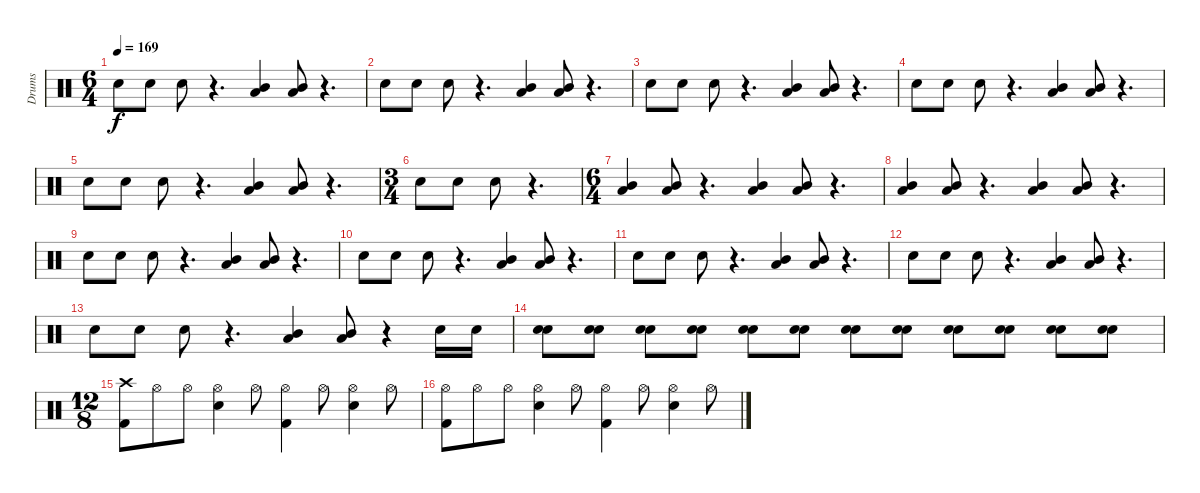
\track ("Drums" "Drums") {instrument percussion}
\staff {score}
\articulation defaults
\ts (6 4)
\tempo 169
\clef neutral
\ks c "Snare (hit) 2".8{dy f} "Snare (hit) 2".8 "Snare (hit) 2".8
r.4{d} ("Low Tom (hit)" "Mid Tom (hit)").4 ("Low Tom (hit)" "Mid Tom (hit)").8 r.4{d} |
"Snare (hit) 2".8 "Snare (hit) 2".8 "Snare (hit) 2".8 r.4{d} ("Low Tom (hit)" "Mid Tom (hit)").4 ("Low Tom (hit)" "Mid Tom (hit)").8 r.4{d} |
"Snare (hit) 2".8 "Snare (hit) 2".8 "Snare (hit) 2".8 r.4{d} ("Low Tom (hit)" "Mid Tom (hit)").4 ("Low Tom (hit)" "Mid Tom (hit)").8 r.4{d} |
"Snare (hit) 2".8 "Snare (hit) 2".8 "Snare (hit) 2".8 r.4{d} ("Low Tom (hit)" "Mid Tom (hit)").4 ("Low Tom (hit)" "Mid Tom (hit)").8 r.4{d} |
"Snare (hit) 2".8 "Snare (hit) 2".8 "Snare (hit) 2".8 r.4{d} ("Low Tom (hit)" "Mid Tom (hit)").4 ("Low Tom (hit)" "Mid Tom (hit)").8 r.4{d} |
\ts (3 4)
"Snare (hit) 2".8 "Snare (hit) 2".8 "Snare (hit) 2".8 r.4{d} |
\ts (6 4)
("Low Tom (hit)" "Mid Tom (hit)").4 ("Low Tom (hit)" "Mid Tom (hit)").8 r.4{d} ("Low Tom (hit)" "Mid Tom (hit)").4 ("Low Tom (hit)" "Mid Tom (hit)").8 r.4{d} |
("Low Tom (hit)" "Mid Tom (hit)").4 ("Low Tom (hit)" "Mid Tom (hit)").8 r.4{d} ("Low Tom (hit)" "Mid Tom (hit)").4 ("Low Tom (hit)" "Mid Tom (hit)").8 r.4{d} |
"Snare (hit) 2".8 "Snare (hit) 2".8 "Snare (hit) 2".8 r.4{d} ("Low Tom (hit)" "Mid Tom (hit)").4 ("Low Tom (hit)" "Mid Tom (hit)").8 r.4{d} |
"Snare (hit) 2".8 "Snare (hit) 2".8 "Snare (hit) 2".8 r.4{d} ("Low Tom (hit)" "Mid Tom (hit)").4 ("Low Tom (hit)" "Mid Tom (hit)").8 r.4{d} |
"Snare (hit) 2".8 "Snare (hit) 2".8 "Snare (hit) 2".8 r.4{d} ("Low Tom (hit)" "Mid Tom (hit)").4 ("Low Tom (hit)" "Mid Tom (hit)").8 r.4{d} |
"Snare (hit) 2".8 "Snare (hit) 2".8 "Snare (hit) 2".8 r.4{d} ("Low Tom (hit)" "Mid Tom (hit)").4 ("Low Tom (hit)" "Mid Tom (hit)").8 r.4{d} |
"Snare (hit) 2".8 "Snare (hit) 2".8 "Snare (hit) 2".8 r.4{d} ("Low Tom (hit)" "Mid Tom (hit)").4 ("Low Tom (hit)" "Mid Tom (hit)").8 r.4 "Snare (hit) 2".16 "Snare (hit) 2".16 |
("Electric Snare (hit)" "Snare (hit) 2").8 ("Electric Snare (hit)" "Snare (hit) 2").8 ("Electric Snare (hit)" "Snare (hit) 2").8 ("Electric Snare (hit)" "Snare (hit) 2").8 ("Electric Snare (hit)" "Snare (hit) 2").8 ("Electric Snare (hit)" "Snare (hit) 2").8 ("Electric Snare (hit)" "Snare (hit) 2").8 ("Electric Snare (hit)" "Snare (hit) 2").8 ("Electric Snare (hit)" "Snare (hit) 2").8 ("Electric Snare (hit)" "Snare (hit) 2").8 ("Electric Snare (hit)" "Snare (hit) 2").8 ("Electric Snare (hit)" "Snare (hit) 2").8 |
\ts (12 8)
("Kick (hit) 2" "Crash high (hit)").8 "Hi-Hat (open)".8 "Hi-Hat (open)".8 ("Snare (hit) 2" "Hi-Hat (open)").4 "Hi-Hat (open)".8 ("Kick (hit) 2" "Hi-Hat (open)").4 "Hi-Hat (open)".8 ("Snare (hit) 2" "Hi-Hat (open)").4 "Hi-Hat (open)".8 |
("Kick (hit) 2" "Hi-Hat (open)").8 "Hi-Hat (open)".8 "Hi-Hat (open)".8 ("Snare (hit) 2" "Hi-Hat (open)").4 "Hi-Hat (open)".8 ("Kick (hit) 2" "Hi-Hat (open)").4 "Hi-Hat (open)".8 ("Snare (hit) 2" "Hi-Hat (open)").4 "Hi-Hat (open)".8
